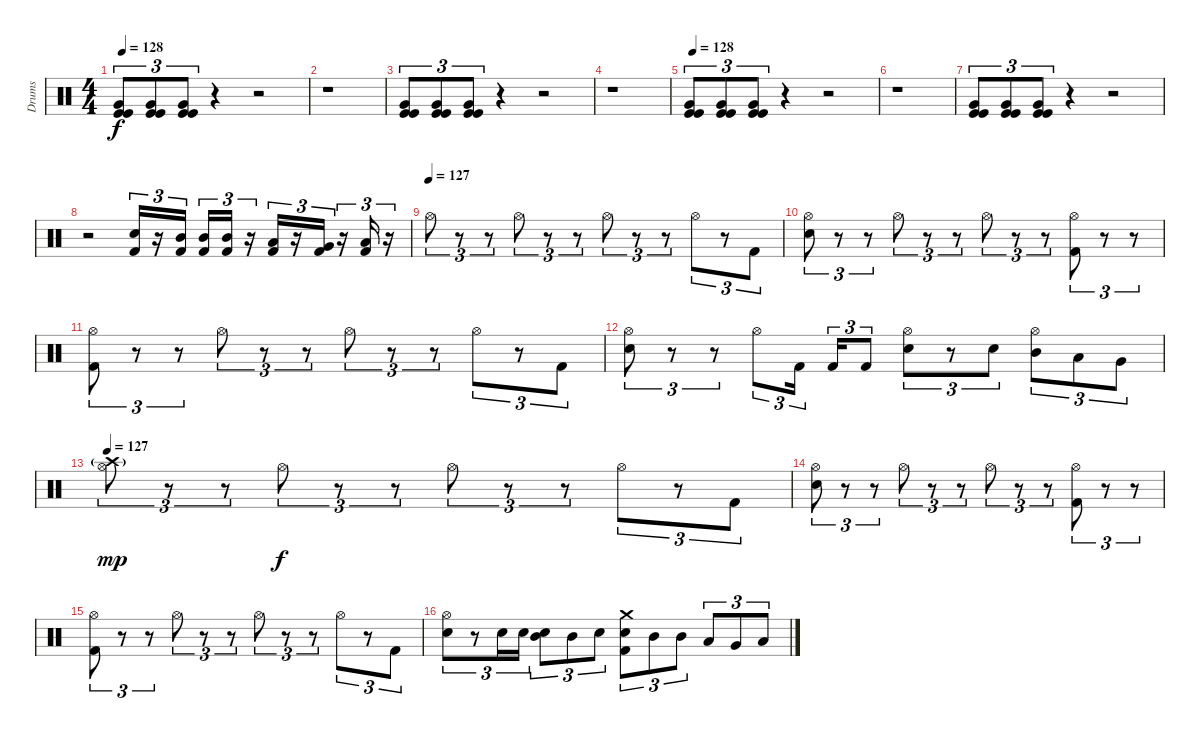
\track ("Drums" "Drums") {instrument percussion}
\staff {score}
\articulation defaults
\ts (4 4)
\tempo 128
\clef neutral
\ks c
("Very Low Tom (hit)" "Kick (hit)" "Kick (hit)").8{tu (3 2) dy f} ("Very Low Tom (hit)" "Kick (hit)" "Kick (hit)").8{tu (3 2)} ("Very Low Tom (hit)" "Kick (hit)" "Kick (hit)").8{tu (3 2)} r.4 r.2 |
r.1 |
("Very Low Tom (hit)" "Kick (hit)" "Kick (hit)").8{tu (3 2)} ("Very Low Tom (hit)" "Kick (hit)" "Kick (hit)").8{tu (3 2)} ("Very Low Tom (hit)" "Kick (hit)" "Kick (hit)").8{tu (3 2)} r.4 r.2 |
r.1 |
\tempo 128
("Very Low Tom (hit)" "Kick (hit)" "Kick (hit)").8{tu (3 2)} ("Very Low Tom (hit)" "Kick (hit)" "Kick (hit)").8{tu (3 2)} ("Very Low Tom (hit)" "Kick (hit)" "Kick (hit)").8{tu (3 2)} r.4 r.2 |
r.1 |
("Very Low Tom (hit)" "Kick (hit)" "Kick (hit)").8{tu (3 2)} ("Very Low Tom (hit)" "Kick (hit)" "Kick (hit)").8{tu (3 2)} ("Very Low Tom (hit)" "Kick (hit)" "Kick (hit)").8{tu (3 2)} r.4 r.2 |
r.2 ("Snare (hit) 2" "Kick (hit) 2").16{tu (3 2)} r.16{tu (3 2)} ("Mid Tom (hit)" "Kick (hit) 2").16{tu (3 2)} ("Mid Tom (hit)" "Kick (hit) 2").16{tu (3 2)} ("Mid Tom (hit)" "Kick (hit) 2").16{tu (3 2)} r.16{tu (3 2)} ("Low Tom (hit)" "Kick (hit) 2").16{tu (3 2)} r.16{tu (3 2)} ("Very Low Tom (hit)" "Kick (hit) 2").16{tu (3 2)} r.16{tu (3 2)} ("Low Floor Tom (hit)" "Kick (hit) 2").16{tu (3 2)} r.16{tu (3 2)} |
\tempo (127)
"Hi-Hat (open)".8{tu (3 2)} r.8{tu (3 2)} r.8{tu (3 2)} "Hi-Hat (open)".8{tu (3 2)} r.8{tu (3 2)} r.8{tu (3 2)} "Hi-Hat (open)".8{tu (3 2)} r.8{tu (3 2)} r.8{tu (3 2)} "Hi-Hat (open)".8{tu (3 2)} r.8{tu (3 2)} "Kick (hit) 2".8{tu (3 2)} |
("Hi-Hat (open)" "Snare (hit) 2").8{tu (3 2)} r.8{tu (3 2)} r.8{tu (3 2)} "Hi-Hat (open)".8{tu (3 2)} r.8{tu (3 2)} r.8{tu (3 2)} "Hi-Hat (open)".8{tu (3 2)} r.8{tu (3 2)} r.8{tu (3 2)} ("Hi-Hat (open)" "Kick (hit) 2").8{tu (3 2)} r.8{tu (3 2)} r.8{tu (3 2)} |
("Hi-Hat (open)" "Kick (hit) 2").8{tu (3 2)} r.8{tu (3 2)} r.8{tu (3 2)} "Hi-Hat (open)".8{tu (3 2)} r.8{tu (3 2)} r.8{tu (3 2)} "Hi-Hat (open)".8{tu (3 2)} r.8{tu (3 2)} r.8{tu (3 2)} "Hi-Hat (open)".8{tu (3 2)} r.8{tu (3 2)} "Kick (hit) 2".8{tu (3 2)} |
("Hi-Hat (open)" "Snare (hit) 2").8{tu (3 2)} r.8{tu (3 2)} r.8{tu (3 2)} "Hi-Hat (open)".8{tu (3 2)} "Kick (hit) 2".16{tu (3 2)} "Kick (hit) 2".16{tu (3 2)} "Kick (hit) 2".8{tu (3 2)} ("Hi-Hat (open)" "Snare (hit) 2").8{tu (3 2)} r.8{tu (3 2)} "Snare (hit) 2".8{tu (3 2)} ("Hi-Hat (open)" "Mid Tom (hit)").8{tu (3 2)} "Low Tom (hit)".8{tu (3 2)} "Very Low Tom (hit)".8{tu (3 2)} |
\tempo 127
("Crash high (hit)"{g} "Hi-Hat (open)").8{tu (3 2) dy mp} r.8{tu (3 2)} r.8{tu (3 2)} "Hi-Hat (open)".8{tu (3 2) dy f} r.8{tu (3 2)} r.8{tu (3 2)} "Hi-Hat (open)".8{tu (3 2)} r.8{tu (3 2)} r.8{tu (3 2)} "Hi-Hat (open)".8{tu (3 2)} r.8{tu (3 2)} "Kick (hit) 2".8{tu (3 2)} |
("Hi-Hat (open)" "Snare (hit) 2").8{tu (3 2)} r.8{tu (3 2)} r.8{tu (3 2)} "Hi-Hat (open)".8{tu (3 2)} r.8{tu (3 2)} r.8{tu (3 2)} "Hi-Hat (open)".8{tu (3 2)} r.8{tu (3 2)} r.8{tu (3 2)} ("Hi-Hat (open)" "Kick (hit) 2").8{tu (3 2)} r.8{tu (3 2)} r.8{tu (3 2)} |
("Hi-Hat (open)" "Kick (hit) 2").8{tu (3 2)} r.8{tu (3 2)} r.8{tu (3 2)} "Hi-Hat (open)".8{tu (3 2)} r.8{tu (3 2)} r.8{tu (3 2)} "Hi-Hat (open)".8{tu (3 2)} r.8{tu (3 2)} r.8{tu (3 2)} "Hi-Hat (open)".8{tu (3 2)} r.8{tu (3 2)} "Kick (hit) 2".8{tu (3 2)} |
("Hi-Hat (open)" "Snare (hit) 2").8{tu (3 2)} r.8{tu (3 2)} "Snare (hit) 2".16{tu (3 2)} "Snare (hit) 2".16{tu (3 2)} ("Mid Tom (hit)" "Snare (hit) 2").8{tu (3 2)} "Mid Tom (hit)".8{tu (3 2)} "Snare (hit) 2".8{tu (3 2)} ("Crash medium (hit)" "Snare (hit) 2" "Kick (hit) 2").8{tu (3 2)} "Mid Tom (hit)".8{tu (3 2)} "Mid Tom (hit)".8{tu (3 2)} "Low Tom (hit)".8{tu (3 2)} "Very Low Tom (hit)".8{tu (3 2)} "Low Floor Tom (hit)".8{tu (3 2)}
